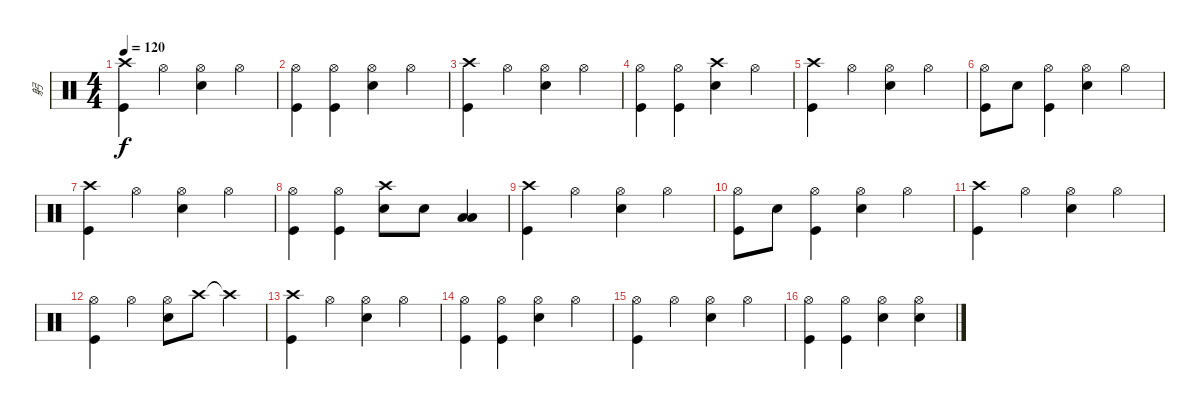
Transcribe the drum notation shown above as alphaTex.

\track ("躬" "躬") {instrument percussion}
\staff {score}
\articulation defaults
\ts (4 4)
\tempo 120
\clef neutral
\ks c
("Crash high (hit)" "Kick (hit)").4{dy f} "Hi-Hat (open)".4 ("Hi-Hat (open)" "Snare (hit) 2").4 "Hi-Hat (open)".4 |
("Hi-Hat (open)" "Kick (hit)").4 ("Hi-Hat (open)" "Kick (hit)").4 ("Hi-Hat (open)" "Snare (hit) 2").4 "Hi-Hat (open)".4 |
("Crash high (hit)" "Kick (hit)").4 "Hi-Hat (open)".4 ("Hi-Hat (open)" "Snare (hit) 2").4 "Hi-Hat (open)".4 |
("Hi-Hat (open)" "Kick (hit)").4 ("Hi-Hat (open)" "Kick (hit)").4 ("Crash high (hit)" "Snare (hit) 2").4 "Hi-Hat (open)".4 |
("Crash high (hit)" "Kick (hit)").4 "Hi-Hat (open)".4 ("Hi-Hat (open)" "Snare (hit) 2").4 "Hi-Hat (open)".4 |
("Hi-Hat (open)" "Kick (hit)").8 "Snare (hit) 2".8 ("Hi-Hat (open)" "Kick (hit)").4 ("Hi-Hat (open)" "Snare (hit) 2").4 "Hi-Hat (open)".4 |
("Crash high (hit)" "Kick (hit)").4 "Hi-Hat (open)".4 ("Hi-Hat (open)" "Snare (hit) 2").4 "Hi-Hat (open)".4 |
("Hi-Hat (open)" "Kick (hit)").4 ("Hi-Hat (open)" "Kick (hit)").4 ("Crash high (hit)" "Snare (hit) 2").8 "Snare (hit) 2".8 ("Low Tom (hit)" "Low Tom (hit)").4 |
("Crash high (hit)" "Kick (hit)").4 "Hi-Hat (open)".4 ("Hi-Hat (open)" "Snare (hit) 2").4 "Hi-Hat (open)".4 |
("Hi-Hat (open)" "Kick (hit)").8 "Snare (hit) 2".8 ("Hi-Hat (open)" "Kick (hit)").4 ("Hi-Hat (open)" "Snare (hit) 2").4 "Hi-Hat (open)".4 |
("Crash high (hit)" "Kick (hit)").4 "Hi-Hat (open)".4 ("Hi-Hat (open)" "Snare (hit) 2").4 "Hi-Hat (open)".4 |
("Hi-Hat (open)" "Kick (hit)").4 "Hi-Hat (open)".4 ("Hi-Hat (open)" "Snare (hit) 2").8 "Crash high (hit)".8 "Crash high (hit)"{t}.4 |
("Crash high (hit)" "Kick (hit)").4 "Hi-Hat (open)".4 ("Hi-Hat (open)" "Snare (hit) 2").4 "Hi-Hat (open)".4 |
("Hi-Hat (open)" "Kick (hit)").4 ("Hi-Hat (open)" "Kick (hit)").4 ("Hi-Hat (open)" "Snare (hit) 2").4 "Hi-Hat (open)".4 |
("Hi-Hat (open)" "Kick (hit)").4 "Hi-Hat (open)".4 ("Hi-Hat (open)" "Snare (hit) 2").4 "Hi-Hat (open)".4 |
("Hi-Hat (open)" "Kick (hit)").4 ("Hi-Hat (open)" "Kick (hit)").4 ("Hi-Hat (open)" "Snare (hit) 2").4 ("Hi-Hat (open)" "Snare (hit) 2").4
